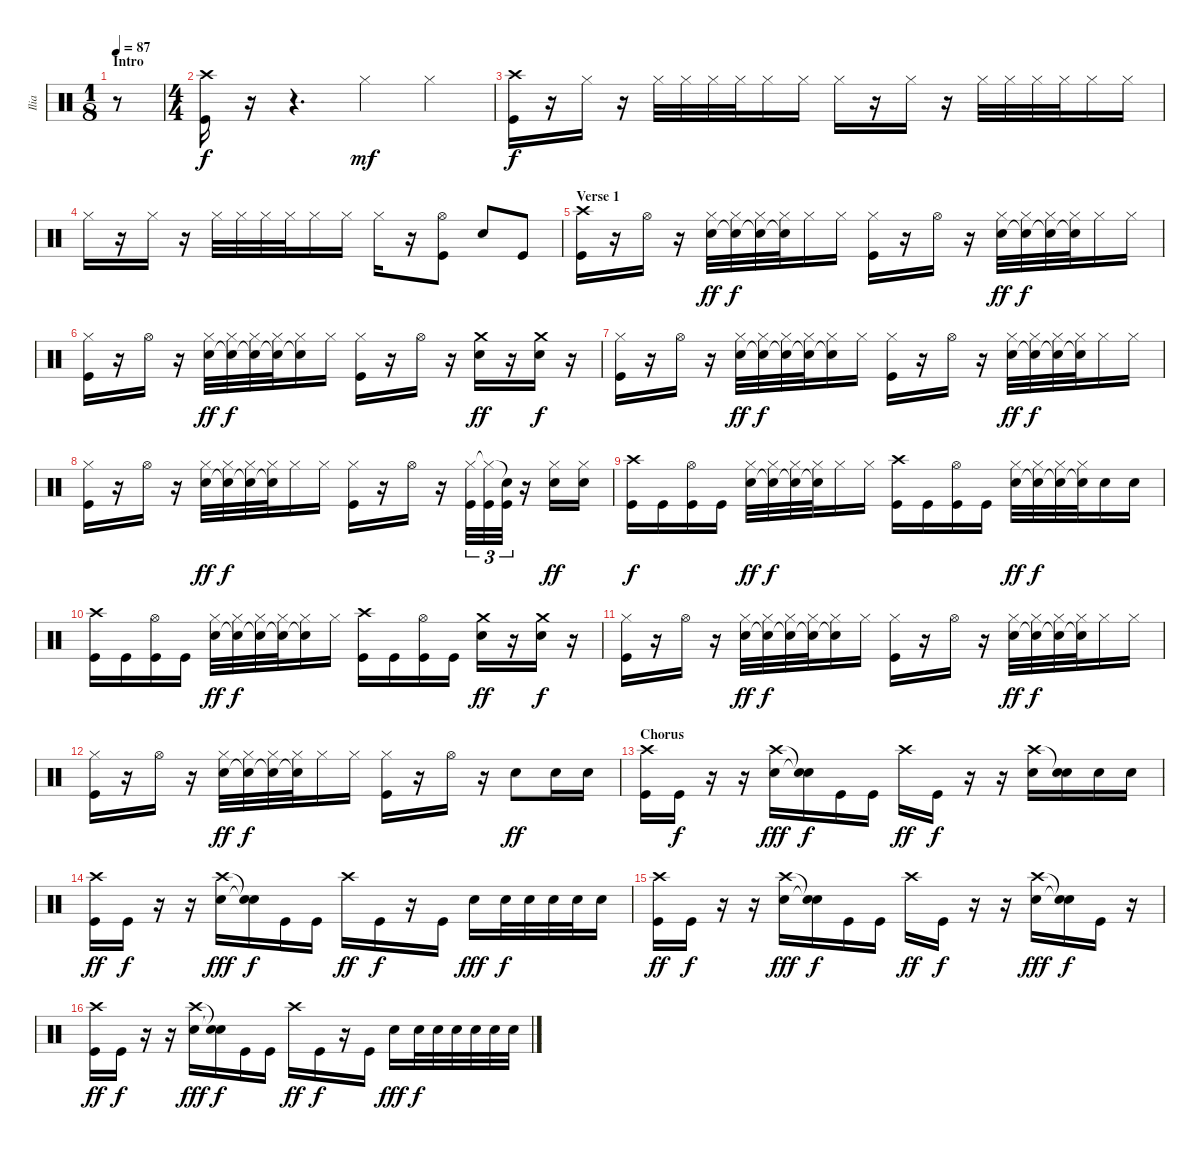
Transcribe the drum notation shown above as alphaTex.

\track ("Ilia" "Ilia") {instrument percussion}
\staff {score}
\articulation defaults
\ts (1 8)
\section ("" "Intro")
\tempo 87
\clef neutral
\ks c
r.8{dy f} |
\ts (4 4)
("Crash high (hit)" "Kick (hit)").16 r.16 r.4{d} "Hi-Hat (closed)".4{dy mf} "Hi-Hat (closed)".4 |
("Crash high (hit)" "Kick (hit)").16{dy f} r.16 "Hi-Hat (closed)".16 r.16 "Hi-Hat (closed)".32 "Hi-Hat (closed)".32 "Hi-Hat (closed)".32 "Hi-Hat (closed)".32 "Hi-Hat (closed)".16 "Hi-Hat (closed)".16 "Hi-Hat (closed)".16 r.16 "Hi-Hat (closed)".16 r.16 "Hi-Hat (closed)".32 "Hi-Hat (closed)".32 "Hi-Hat (closed)".32 "Hi-Hat (closed)".32 "Hi-Hat (closed)".16 "Hi-Hat (closed)".16 |
"Hi-Hat (closed)".16 r.16 "Hi-Hat (closed)".16 r.16 "Hi-Hat (closed)".32 "Hi-Hat (closed)".32 "Hi-Hat (closed)".32 "Hi-Hat (closed)".32 "Hi-Hat (closed)".16 "Hi-Hat (closed)".16 "Hi-Hat (closed)".16 r.16 ("Hi-Hat (open)" "Kick (hit)").8 "Electric Snare (hit)".8 "Kick (hit)".8 |
\section ("" "Verse 1")
("Crash high (hit)" "Kick (hit)").16 r.16 "Hi-Hat (open)".16 r.16 ("Hi-Hat (closed)" "Electric Snare (hit)").32{dy ff} ("Hi-Hat (closed)" "Snare (hit)"{t}).32{dy f} ("Hi-Hat (closed)" "Snare (hit)"{t}).32 ("Hi-Hat (closed)" "Snare (hit)"{t}).32 "Hi-Hat (closed)".16 "Hi-Hat (closed)".16 ("Hi-Hat (closed)" "Kick (hit)").16 r.16 "Hi-Hat (open)".16 r.16 ("Hi-Hat (closed)" "Electric Snare (hit)").32{dy ff} ("Hi-Hat (closed)" "Snare (hit)"{t}).32{dy f} ("Hi-Hat (closed)" "Snare (hit)"{t}).32 ("Hi-Hat (closed)" "Snare (hit)"{t}).32 "Hi-Hat (closed)".16 "Hi-Hat (closed)".16 |
("Hi-Hat (closed)" "Kick (hit)").16 r.16 "Hi-Hat (open)".16 r.16 ("Hi-Hat (closed)" "Electric Snare (hit)").32{dy ff} ("Hi-Hat (closed)" "Snare (hit)"{t}).32{dy f} ("Hi-Hat (closed)" "Snare (hit)"{t}).32 ("Hi-Hat (closed)" "Snare (hit)"{t}).32 ("Hi-Hat (closed)" "Snare (hit)"{t}).16 "Hi-Hat (closed)".16 ("Hi-Hat (closed)" "Kick (hit)").16 r.16 "Hi-Hat (open)".16 r.16 ("Crash medium (hit)" "Electric Snare (hit)").16{dy ff} r.16 ("Crash medium (hit)" "Electric Snare (hit)").16{dy f} r.16 |
("Hi-Hat (closed)" "Kick (hit)").16 r.16 "Hi-Hat (open)".16 r.16 ("Hi-Hat (closed)" "Electric Snare (hit)").32{dy ff} ("Hi-Hat (closed)" "Snare (hit)"{t}).32{dy f} ("Hi-Hat (closed)" "Snare (hit)"{t}).32 ("Hi-Hat (closed)" "Snare (hit)"{t}).32 ("Hi-Hat (closed)" "Snare (hit)"{t}).16 "Hi-Hat (closed)".16 ("Hi-Hat (closed)" "Kick (hit)").16 r.16 "Hi-Hat (open)".16 r.16 ("Hi-Hat (closed)" "Electric Snare (hit)").32{dy ff} ("Hi-Hat (closed)" "Snare (hit)"{t}).32{dy f} ("Hi-Hat (closed)" "Snare (hit)"{t}).32 ("Hi-Hat (closed)" "Snare (hit)"{t}).32 "Hi-Hat (closed)".16 "Hi-Hat (closed)".16 |
("Hi-Hat (closed)" "Kick (hit)").16 r.16 "Hi-Hat (open)".16 r.16 ("Hi-Hat (closed)" "Electric Snare (hit)").32{dy ff} ("Hi-Hat (closed)" "Snare (hit)"{t}).32{dy f} ("Hi-Hat (closed)" "Snare (hit)"{t}).32 ("Hi-Hat (closed)" "Snare (hit)"{t}).32 "Hi-Hat (closed)".16 "Hi-Hat (closed)".16 ("Hi-Hat (closed)" "Kick (hit)").16 r.16 "Hi-Hat (open)".16 r.16 ("Hi-Hat (closed)" "Kick (hit)").32{tu (3 2)} ("Hi-Hat (closed)"{t} "Kick (hit)").32{tu (3 2)} ("Snare (hit)"{t} "Kick (hit)").32{tu (3 2)} r.16 ("Hi-Hat (closed)" "Electric Snare (hit)").16{dy ff} ("Hi-Hat (closed)" "Electric Snare (hit)").16 |
("Crash high (hit)" "Kick (hit)").16{dy f} "Kick (hit)".16 ("Hi-Hat (open)" "Kick (hit)").16 "Kick (hit)".16 ("Hi-Hat (closed)" "Electric Snare (hit)").32{dy ff} ("Hi-Hat (closed)" "Snare (hit)"{t}).32{dy f} ("Hi-Hat (closed)" "Snare (hit)"{t}).32 ("Hi-Hat (closed)" "Snare (hit)"{t}).32 "Hi-Hat (closed)".16 "Hi-Hat (closed)".16 ("Crash high (hit)" "Kick (hit)").16 "Kick (hit)".16 ("Hi-Hat (open)" "Kick (hit)").16 "Kick (hit)".16 ("Hi-Hat (closed)" "Electric Snare (hit)").32{dy ff} ("Hi-Hat (closed)" "Snare (hit)"{t}).32{dy f} ("Hi-Hat (closed)" "Snare (hit)"{t}).32 ("Hi-Hat (closed)" "Snare (hit)"{t}).32 "Electric Snare (hit)".16 "Electric Snare (hit)".16 |
("Crash high (hit)" "Kick (hit)").16 "Kick (hit)".16 ("Hi-Hat (open)" "Kick (hit)").16 "Kick (hit)".16 ("Hi-Hat (closed)" "Electric Snare (hit)").32{dy ff} ("Hi-Hat (closed)" "Snare (hit)"{t}).32{dy f} ("Hi-Hat (closed)" "Snare (hit)"{t}).32 ("Hi-Hat (closed)" "Snare (hit)"{t}).32 ("Hi-Hat (closed)" "Snare (hit)"{t}).16 "Hi-Hat (closed)".16 ("Crash high (hit)" "Kick (hit)").16 "Kick (hit)".16 ("Hi-Hat (open)" "Kick (hit)").16 "Kick (hit)".16 ("Crash medium (hit)" "Electric Snare (hit)").16{dy ff} r.16 ("Crash medium (hit)" "Electric Snare (hit)").16{dy f} r.16 |
("Hi-Hat (closed)" "Kick (hit)").16 r.16 "Hi-Hat (open)".16 r.16 ("Hi-Hat (closed)" "Electric Snare (hit)").32{dy ff} ("Hi-Hat (closed)" "Snare (hit)"{t}).32{dy f} ("Hi-Hat (closed)" "Snare (hit)"{t}).32 ("Hi-Hat (closed)" "Snare (hit)"{t}).32 ("Hi-Hat (closed)" "Snare (hit)"{t}).16 "Hi-Hat (closed)".16 ("Hi-Hat (closed)" "Kick (hit)").16 r.16 "Hi-Hat (open)".16 r.16 ("Hi-Hat (closed)" "Electric Snare (hit)").32{dy ff} ("Hi-Hat (closed)" "Snare (hit)"{t}).32{dy f} ("Hi-Hat (closed)" "Snare (hit)"{t}).32 ("Hi-Hat (closed)" "Snare (hit)"{t}).32 "Hi-Hat (closed)".16 "Hi-Hat (closed)".16 |
("Hi-Hat (closed)" "Kick (hit)").16 r.16 "Hi-Hat (open)".16 r.16 ("Hi-Hat (closed)" "Electric Snare (hit)").32{dy ff} ("Hi-Hat (closed)" "Snare (hit)"{t}).32{dy f} ("Hi-Hat (closed)" "Snare (hit)"{t}).32 ("Hi-Hat (closed)" "Snare (hit)"{t}).32 "Hi-Hat (closed)".16 "Hi-Hat (closed)".16 ("Hi-Hat (closed)" "Kick (hit)").16 r.16 "Hi-Hat (open)".16 r.16 "Electric Snare (hit)".8{dy ff} "Electric Snare (hit)".16 "Electric Snare (hit)".16 |
\section ("" "Chorus")
("Crash high (hit)" "Kick (hit)").16 "Kick (hit)".16{dy f} r.16 r.16 ("Crash high (hit)" "Electric Snare (hit)").16{dy fff} ("Snare (hit)"{t} "Snare (hit)"{t}).16{dy f} "Kick (hit)".16 "Kick (hit)".16 "Crash high (hit)".16{dy ff} "Kick (hit)".16{dy f} r.16 r.16 ("Crash high (hit)" "Electric Snare (hit)").16 ("Snare (hit)"{t} "Electric Snare (hit)").16 "Electric Snare (hit)".16 "Electric Snare (hit)".16 |
("Crash high (hit)" "Kick (hit)").16{dy ff} "Kick (hit)".16{dy f} r.16 r.16 ("Crash high (hit)" "Electric Snare (hit)").16{dy fff} ("Snare (hit)"{t} "Snare (hit)"{t}).16{dy f} "Kick (hit)".16 "Kick (hit)".16 "Crash high (hit)".16{dy ff} "Kick (hit)".16{dy f} r.16 "Kick (hit)".16 "Electric Snare (hit)".16{dy fff} "Electric Snare (hit)".32{dy f} "Electric Snare (hit)".32 "Electric Snare (hit)".32 "Electric Snare (hit)".32 "Electric Snare (hit)".16 |
("Crash high (hit)" "Kick (hit)").16{dy ff} "Kick (hit)".16{dy f} r.16 r.16 ("Crash high (hit)" "Electric Snare (hit)").16{dy fff} ("Snare (hit)"{t} "Snare (hit)"{t}).16{dy f} "Kick (hit)".16 "Kick (hit)".16 "Crash high (hit)".16{dy ff} "Kick (hit)".16{dy f} r.16 r.16 ("Crash high (hit)" "Electric Snare (hit)").16{dy fff} ("Snare (hit)"{t} "Snare (hit)"{t}).16{dy f} "Kick (hit)".16 r.16 |
("Crash high (hit)" "Kick (hit)").16{dy ff} "Kick (hit)".16{dy f} r.16 r.16 ("Crash high (hit)" "Electric Snare (hit)").16{dy fff} ("Snare (hit)"{t} "Snare (hit)"{t}).16{dy f} "Kick (hit)".16 "Kick (hit)".16 "Crash high (hit)".16{dy ff} "Kick (hit)".16{dy f} r.16 "Kick (hit)".16 "Electric Snare (hit)".16{dy fff} "Electric Snare (hit)".32{dy f} "Electric Snare (hit)".32 "Electric Snare (hit)".32 "Electric Snare (hit)".32 "Electric Snare (hit)".32 "Electric Snare (hit)".32
